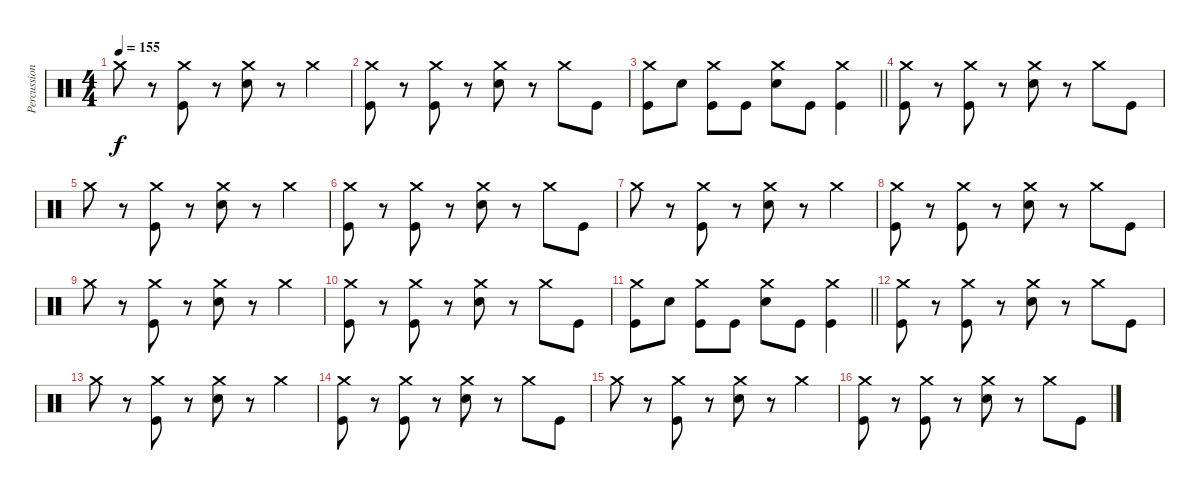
\track ("Percussion" "Percussion") {instrument percussion}
\staff {score}
\articulation defaults
\ts (4 4)
\tempo 155
\clef neutral
\ks c "Crash medium (hit)".8{dy f}
r.8 ("Crash medium (hit)" "Kick (hit)").8 r.8 ("Crash medium (hit)" "Electric Snare (hit)").8 r.8 "Crash medium (hit)".4 |
("Crash medium (hit)" "Kick (hit)").8 r.8 ("Crash medium (hit)" "Kick (hit)").8 r.8 ("Crash medium (hit)" "Electric Snare (hit)").8 r.8 "Crash medium (hit)".8 "Kick (hit)".8 |
\barLineRight lightlight
("Crash medium (hit)" "Kick (hit)").8 "Electric Snare (hit)".8 ("Crash medium (hit)" "Kick (hit)").8 "Kick (hit)".8 ("Crash medium (hit)" "Electric Snare (hit)").8 "Kick (hit)".8 ("Crash medium (hit)" "Kick (hit)").4 |
("Crash medium (hit)" "Kick (hit)").8 r.8 ("Crash medium (hit)" "Kick (hit)").8 r.8 ("Crash medium (hit)" "Electric Snare (hit)").8 r.8 "Crash medium (hit)".8 "Kick (hit)".8 |
"Crash medium (hit)".8 r.8 ("Crash medium (hit)" "Kick (hit)").8 r.8 ("Crash medium (hit)" "Electric Snare (hit)").8 r.8 "Crash medium (hit)".4 |
("Crash medium (hit)" "Kick (hit)").8 r.8 ("Crash medium (hit)" "Kick (hit)").8 r.8 ("Crash medium (hit)" "Electric Snare (hit)").8 r.8 "Crash medium (hit)".8 "Kick (hit)".8 |
"Crash medium (hit)".8 r.8 ("Crash medium (hit)" "Kick (hit)").8 r.8 ("Crash medium (hit)" "Electric Snare (hit)").8 r.8 "Crash medium (hit)".4 |
("Crash medium (hit)" "Kick (hit)").8 r.8 ("Crash medium (hit)" "Kick (hit)").8 r.8 ("Crash medium (hit)" "Electric Snare (hit)").8 r.8 "Crash medium (hit)".8 "Kick (hit)".8 |
"Crash medium (hit)".8 r.8 ("Crash medium (hit)" "Kick (hit)").8 r.8 ("Crash medium (hit)" "Electric Snare (hit)").8 r.8 "Crash medium (hit)".4 |
("Crash medium (hit)" "Kick (hit)").8 r.8 ("Crash medium (hit)" "Kick (hit)").8 r.8 ("Crash medium (hit)" "Electric Snare (hit)").8 r.8 "Crash medium (hit)".8 "Kick (hit)".8 |
\barLineRight lightlight
("Crash medium (hit)" "Kick (hit)").8 "Electric Snare (hit)".8 ("Crash medium (hit)" "Kick (hit)").8 "Kick (hit)".8 ("Crash medium (hit)" "Electric Snare (hit)").8 "Kick (hit)".8 ("Crash medium (hit)" "Kick (hit)").4 |
("Crash medium (hit)" "Kick (hit)").8 r.8 ("Crash medium (hit)" "Kick (hit)").8 r.8 ("Crash medium (hit)" "Electric Snare (hit)").8 r.8 "Crash medium (hit)".8 "Kick (hit)".8 |
"Crash medium (hit)".8 r.8 ("Crash medium (hit)" "Kick (hit)").8 r.8 ("Crash medium (hit)" "Electric Snare (hit)").8 r.8 "Crash medium (hit)".4 |
("Crash medium (hit)" "Kick (hit)").8 r.8 ("Crash medium (hit)" "Kick (hit)").8 r.8 ("Crash medium (hit)" "Electric Snare (hit)").8 r.8 "Crash medium (hit)".8 "Kick (hit)".8 |
"Crash medium (hit)".8 r.8 ("Crash medium (hit)" "Kick (hit)").8 r.8 ("Crash medium (hit)" "Electric Snare (hit)").8 r.8 "Crash medium (hit)".4 |
("Crash medium (hit)" "Kick (hit)").8 r.8 ("Crash medium (hit)" "Kick (hit)").8 r.8 ("Crash medium (hit)" "Electric Snare (hit)").8 r.8 "Crash medium (hit)".8 "Kick (hit)".8
